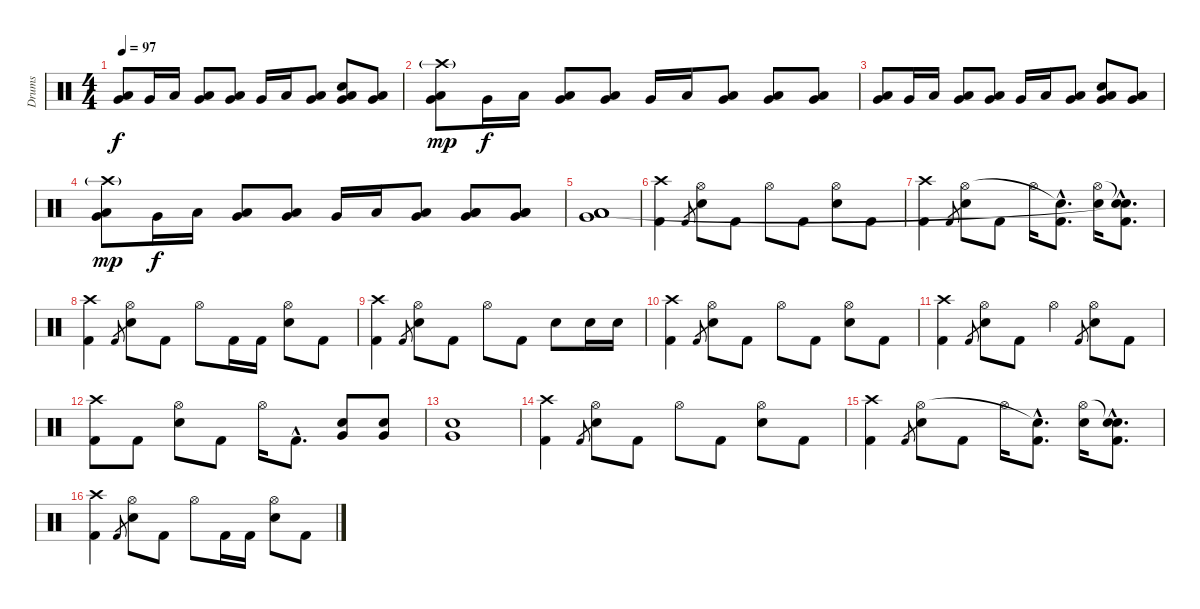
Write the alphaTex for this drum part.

\track ("Drums" "Drums") {instrument percussion}
\staff {score}
\articulation defaults
\ts (4 4)
\tempo 97
\clef neutral
\ks c
("Low Tom (hit)" "Very Low Tom (hit)").8{dy f} "Very Low Tom (hit)".16 "Low Tom (hit)".16 ("Low Tom (hit)" "Very Low Tom (hit)").8 ("Low Tom (hit)" "Very Low Tom (hit)").8 "Very Low Tom (hit)".16 "Low Tom (hit)".16 ("Low Tom (hit)" "Very Low Tom (hit)").8 ("Low Tom (hit)" "Very Low Tom (hit)" "Electric Snare (hit)").8 ("Low Tom (hit)" "Very Low Tom (hit)").8 |
("Low Tom (hit)" "Very Low Tom (hit)" "Crash high (hit)"{g}).8{dy mp volume 13} "Very Low Tom (hit)".16{dy f} "Low Tom (hit)".16 ("Low Tom (hit)" "Very Low Tom (hit)").8 ("Low Tom (hit)" "Very Low Tom (hit)").8 "Very Low Tom (hit)".16 "Low Tom (hit)".16 ("Low Tom (hit)" "Very Low Tom (hit)").8 ("Low Tom (hit)" "Very Low Tom (hit)").8 ("Low Tom (hit)" "Very Low Tom (hit)").8 |
("Low Tom (hit)" "Very Low Tom (hit)").8 "Very Low Tom (hit)".16 "Low Tom (hit)".16 ("Low Tom (hit)" "Very Low Tom (hit)").8 ("Low Tom (hit)" "Very Low Tom (hit)").8 "Very Low Tom (hit)".16 "Low Tom (hit)".16 ("Low Tom (hit)" "Very Low Tom (hit)").8 ("Low Tom (hit)" "Very Low Tom (hit)" "Electric Snare (hit)").8 ("Low Tom (hit)" "Very Low Tom (hit)").8 |
("Low Tom (hit)" "Very Low Tom (hit)" "Crash high (hit)"{g}).8{dy mp volume 13} "Very Low Tom (hit)".16{dy f} "Low Tom (hit)".16 ("Low Tom (hit)" "Very Low Tom (hit)").8 ("Low Tom (hit)" "Very Low Tom (hit)").8 "Very Low Tom (hit)".16 "Low Tom (hit)".16 ("Low Tom (hit)" "Very Low Tom (hit)").8 ("Low Tom (hit)" "Very Low Tom (hit)" "Low Tom (hit)").8 ("Low Tom (hit)" "Very Low Tom (hit)" "Low Tom (hit)").8 |
("Low Tom (hit)" "Very Low Tom (hit)" "Low Tom (hit)").1 |
("Kick (hit) 2" "Crash high (hit)").4{volume 10} "Kick (hit) 2".8{gr} ("Electric Snare (hit)" "Hi-Hat (open)").8 "Kick (hit) 2".8 "Hi-Hat (open)".8 "Kick (hit) 2".8 ("Electric Snare (hit)" "Hi-Hat (open)").8 "Kick (hit) 2".8 |
("Kick (hit) 2" "Crash high (hit)").4 "Kick (hit) 2".8{gr} ("Electric Snare (hit)" "Hi-Hat (open)").8 "Kick (hit) 2".8 "Hi-Hat (open)".16 ("Kick (hit) 2"{hac} "Snare (hit)"{hac t}).8{d} ("Electric Snare (hit)" "Hi-Hat (open)").16 ("Kick (hit) 2"{hac} "Snare (hit)"{hac t} "Snare (hit)"{hac t}).8{d} |
("Kick (hit) 2" "Crash high (hit)").4 "Kick (hit) 2".8{gr} ("Electric Snare (hit)" "Hi-Hat (open)").8 "Kick (hit) 2".8 "Hi-Hat (open)".8 "Kick (hit) 2".16 "Kick (hit) 2".16 ("Electric Snare (hit)" "Hi-Hat (open)").8 "Kick (hit) 2".8 |
("Kick (hit) 2" "Crash high (hit)").4 "Kick (hit) 2".8{gr} ("Electric Snare (hit)" "Hi-Hat (open)").8 "Kick (hit) 2".8 "Hi-Hat (open)".8 "Kick (hit) 2".8 "Electric Snare (hit)".8 "Electric Snare (hit)".16 "Electric Snare (hit)".16 |
("Kick (hit) 2" "Crash high (hit)").4{volume 10} "Kick (hit) 2".8{gr} ("Electric Snare (hit)" "Hi-Hat (open)").8 "Kick (hit) 2".8 "Hi-Hat (open)".8 "Kick (hit) 2".8 ("Electric Snare (hit)" "Hi-Hat (open)").8 "Kick (hit) 2".8 |
("Kick (hit) 2" "Crash high (hit)").4 "Kick (hit) 2".8{gr} ("Electric Snare (hit)" "Hi-Hat (open)").8 "Kick (hit) 2".8 "Hi-Hat (open)".4 "Kick (hit) 2".8{gr} ("Electric Snare (hit)" "Hi-Hat (open)").8 "Kick (hit) 2".8 |
("Kick (hit) 2" "Crash high (hit)").8 "Kick (hit) 2".8 ("Electric Snare (hit)" "Hi-Hat (open)").8 "Kick (hit) 2".8 "Hi-Hat (open)".16 "Kick (hit) 2"{hac}.8{d} ("Electric Snare (hit)" "Very Low Tom (hit)").8 ("Electric Snare (hit)" "Very Low Tom (hit)").8 |
("Electric Snare (hit)" "Very Low Tom (hit)").1 |
("Kick (hit) 2" "Crash high (hit)").4{volume 10} "Kick (hit) 2".8{gr} ("Electric Snare (hit)" "Hi-Hat (open)").8 "Kick (hit) 2".8 "Hi-Hat (open)".8 "Kick (hit) 2".8 ("Electric Snare (hit)" "Hi-Hat (open)").8 "Kick (hit) 2".8 |
("Kick (hit) 2" "Crash high (hit)").4 "Kick (hit) 2".8{gr} ("Electric Snare (hit)" "Hi-Hat (open)").8 "Kick (hit) 2".8 "Hi-Hat (open)".16 ("Kick (hit) 2"{hac} "Snare (hit)"{hac t}).8{d} ("Electric Snare (hit)" "Hi-Hat (open)").16 ("Kick (hit) 2"{hac} "Snare (hit)"{hac t} "Snare (hit)"{hac}).8{d} |
("Kick (hit) 2" "Crash high (hit)").4 "Kick (hit) 2".8{gr} ("Electric Snare (hit)" "Hi-Hat (open)").8 "Kick (hit) 2".8 "Hi-Hat (open)".8 "Kick (hit) 2".16 "Kick (hit) 2".16 ("Electric Snare (hit)" "Hi-Hat (open)").8 "Kick (hit) 2".8
